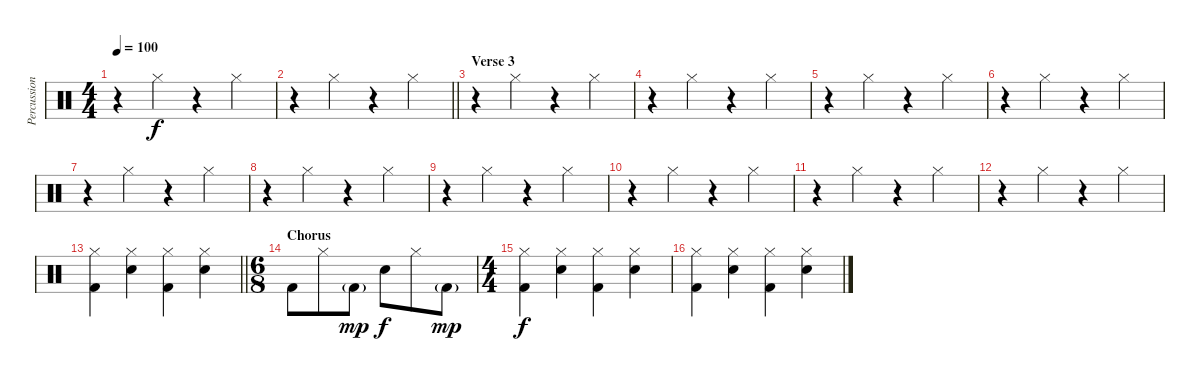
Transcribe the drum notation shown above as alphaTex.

\track ("Percussion" "Percussion") {instrument percussion}
\staff {score}
\articulation defaults
\ts (4 4)
\tempo 100
\clef neutral
\ks c
r.4{dy f} "Hi-Hat (closed)".4{volume 10} r.4 "Hi-Hat (closed)".4 |
\barLineRight lightlight
r.4 "Hi-Hat (closed)".4 r.4 "Hi-Hat (closed)".4 |
\section ("" "Verse 3")
r.4{volume 10} "Hi-Hat (closed)".4 r.4 "Hi-Hat (closed)".4 |
r.4 "Hi-Hat (closed)".4 r.4 "Hi-Hat (closed)".4 |
r.4 "Hi-Hat (closed)".4 r.4 "Hi-Hat (closed)".4 |
r.4 "Hi-Hat (closed)".4 r.4 "Hi-Hat (closed)".4 |
r.4 "Hi-Hat (closed)".4 r.4 "Hi-Hat (closed)".4 |
r.4 "Hi-Hat (closed)".4 r.4 "Hi-Hat (closed)".4 |
r.4 "Hi-Hat (closed)".4 r.4 "Hi-Hat (closed)".4 |
r.4 "Hi-Hat (closed)".4 r.4 "Hi-Hat (closed)".4 |
r.4 "Hi-Hat (closed)".4 r.4 "Hi-Hat (closed)".4 |
r.4 "Hi-Hat (closed)".4 r.4 "Hi-Hat (closed)".4 |
\barLineRight lightlight
("Hi-Hat (closed)" "Kick (hit) 2").4{volume 5} ("Hi-Hat (closed)" "Snare (hit) 2").4 ("Hi-Hat (closed)" "Kick (hit) 2").4 ("Hi-Hat (closed)" "Snare (hit) 2").4 |
\ts (6 8)
\section ("" "Chorus")
"Kick (hit) 2".8 "Hi-Hat (closed)".8 "Kick (hit) 2"{g}.8{dy mp} "Snare (hit) 2".8{dy f} "Hi-Hat (closed)".8 "Kick (hit) 2"{g}.8{dy mp} |
\ts (4 4)
("Hi-Hat (closed)" "Kick (hit) 2").4{dy f} ("Hi-Hat (closed)" "Snare (hit) 2").4 ("Hi-Hat (closed)" "Kick (hit) 2").4 ("Hi-Hat (closed)" "Snare (hit) 2").4 |
("Hi-Hat (closed)" "Kick (hit) 2").4 ("Hi-Hat (closed)" "Snare (hit) 2").4 ("Hi-Hat (closed)" "Kick (hit) 2").4 ("Hi-Hat (closed)" "Snare (hit) 2").4
